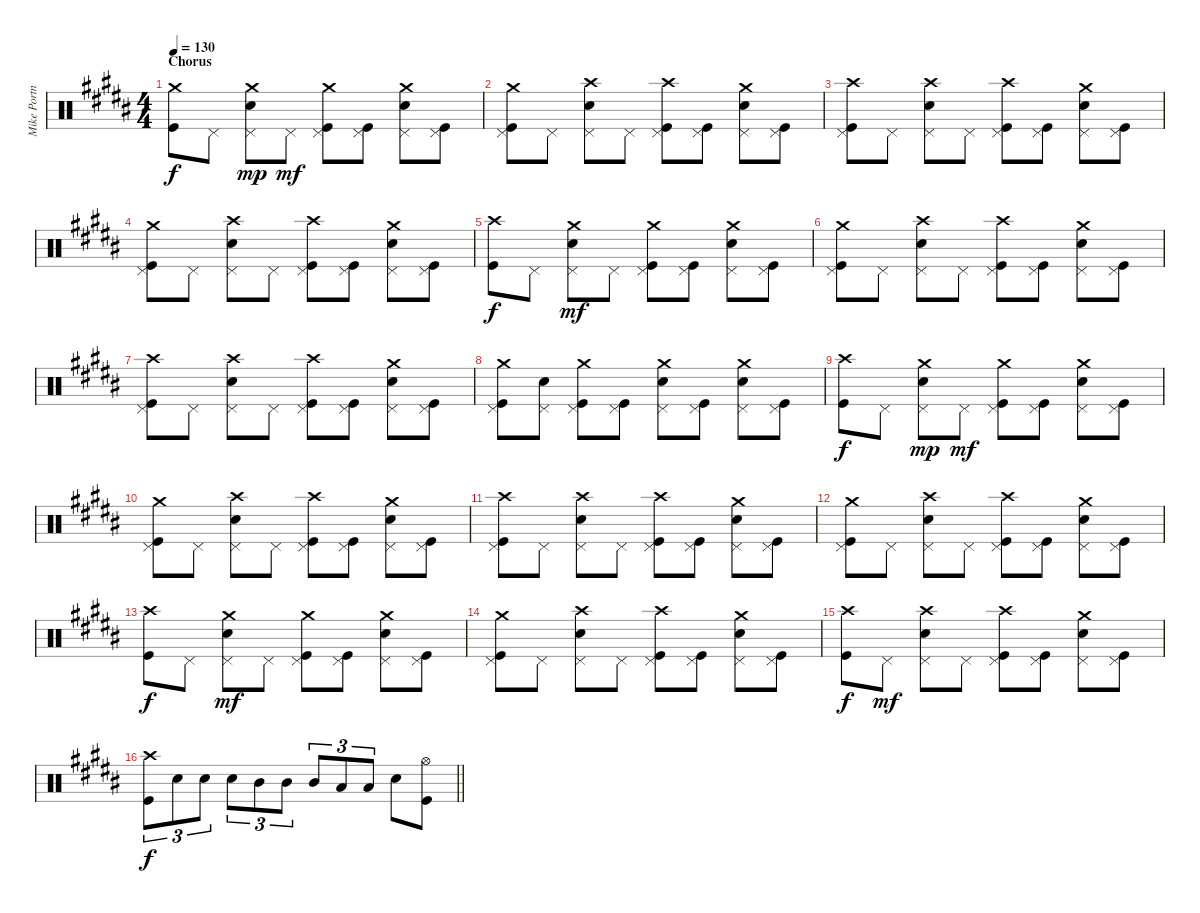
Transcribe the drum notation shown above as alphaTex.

\track ("Mike Portnoy" "Mike Portn") {instrument percussion}
\staff {score}
\articulation defaults
\ts (4 4)
\section ("" "Chorus")
\tempo 130
\clef neutral
\ks g#minor
("Crash medium (hit)" "Kick (hit)").8{dy f} "Pedal Hi-Hat (hit)".8 ("Crash medium (hit)" "Pedal Hi-Hat (hit)" "Electric Snare (hit)").8{dy mp} "Pedal Hi-Hat (hit)".8{dy mf} ("Crash medium (hit)" "Pedal Hi-Hat (hit)" "Kick (hit)").8 ("Pedal Hi-Hat (hit)" "Kick (hit)").8 ("Crash medium (hit)" "Pedal Hi-Hat (hit)" "Electric Snare (hit)").8 ("Pedal Hi-Hat (hit)" "Kick (hit)").8 |
("Crash medium (hit)" "Pedal Hi-Hat (hit)" "Kick (hit)").8 "Pedal Hi-Hat (hit)".8 ("Crash high (hit)" "Pedal Hi-Hat (hit)" "Electric Snare (hit)").8 "Pedal Hi-Hat (hit)".8 ("Crash high (hit)" "Pedal Hi-Hat (hit)" "Kick (hit)").8 ("Pedal Hi-Hat (hit)" "Kick (hit)").8 ("Crash medium (hit)" "Pedal Hi-Hat (hit)" "Electric Snare (hit)").8 ("Pedal Hi-Hat (hit)" "Kick (hit)").8 |
("Crash high (hit)" "Pedal Hi-Hat (hit)" "Kick (hit)").8 "Pedal Hi-Hat (hit)".8 ("Crash high (hit)" "Pedal Hi-Hat (hit)" "Electric Snare (hit)").8 "Pedal Hi-Hat (hit)".8 ("Crash high (hit)" "Pedal Hi-Hat (hit)" "Kick (hit)").8 ("Pedal Hi-Hat (hit)" "Kick (hit)").8 ("Crash medium (hit)" "Pedal Hi-Hat (hit)" "Electric Snare (hit)").8 ("Pedal Hi-Hat (hit)" "Kick (hit)").8 |
("Crash medium (hit)" "Pedal Hi-Hat (hit)" "Kick (hit)").8 "Pedal Hi-Hat (hit)".8 ("Crash high (hit)" "Pedal Hi-Hat (hit)" "Electric Snare (hit)").8 "Pedal Hi-Hat (hit)".8 ("Crash high (hit)" "Pedal Hi-Hat (hit)" "Kick (hit)").8 ("Pedal Hi-Hat (hit)" "Kick (hit)").8 ("Crash medium (hit)" "Pedal Hi-Hat (hit)" "Electric Snare (hit)").8 ("Pedal Hi-Hat (hit)" "Kick (hit)").8 |
("Crash high (hit)" "Kick (hit)").8{dy f} "Pedal Hi-Hat (hit)".8 ("Crash medium (hit)" "Pedal Hi-Hat (hit)" "Electric Snare (hit)").8{dy mf} "Pedal Hi-Hat (hit)".8 ("Crash medium (hit)" "Pedal Hi-Hat (hit)" "Kick (hit)").8 ("Pedal Hi-Hat (hit)" "Kick (hit)").8 ("Crash medium (hit)" "Pedal Hi-Hat (hit)" "Electric Snare (hit)").8 ("Pedal Hi-Hat (hit)" "Kick (hit)").8 |
("Crash medium (hit)" "Pedal Hi-Hat (hit)" "Kick (hit)").8 "Pedal Hi-Hat (hit)".8 ("Crash high (hit)" "Pedal Hi-Hat (hit)" "Electric Snare (hit)").8 "Pedal Hi-Hat (hit)".8 ("Crash high (hit)" "Pedal Hi-Hat (hit)" "Kick (hit)").8 ("Pedal Hi-Hat (hit)" "Kick (hit)").8 ("Crash medium (hit)" "Pedal Hi-Hat (hit)" "Electric Snare (hit)").8 ("Pedal Hi-Hat (hit)" "Kick (hit)").8 |
("Crash high (hit)" "Pedal Hi-Hat (hit)" "Kick (hit)").8 "Pedal Hi-Hat (hit)".8 ("Crash high (hit)" "Pedal Hi-Hat (hit)" "Electric Snare (hit)").8 "Pedal Hi-Hat (hit)".8 ("Crash high (hit)" "Pedal Hi-Hat (hit)" "Kick (hit)").8 ("Pedal Hi-Hat (hit)" "Kick (hit)").8 ("Crash medium (hit)" "Pedal Hi-Hat (hit)" "Electric Snare (hit)").8 ("Pedal Hi-Hat (hit)" "Kick (hit)").8 |
("Crash medium (hit)" "Pedal Hi-Hat (hit)" "Kick (hit)").8 ("Pedal Hi-Hat (hit)" "Electric Snare (hit)").8 ("Crash medium (hit)" "Pedal Hi-Hat (hit)" "Kick (hit)").8 ("Pedal Hi-Hat (hit)" "Kick (hit)").8 ("Crash medium (hit)" "Pedal Hi-Hat (hit)" "Electric Snare (hit)").8 ("Pedal Hi-Hat (hit)" "Kick (hit)").8 ("Crash medium (hit)" "Pedal Hi-Hat (hit)" "Electric Snare (hit)").8 ("Pedal Hi-Hat (hit)" "Kick (hit)").8 |
("Crash high (hit)" "Kick (hit)").8{dy f} "Pedal Hi-Hat (hit)".8 ("Crash medium (hit)" "Pedal Hi-Hat (hit)" "Electric Snare (hit)").8{dy mp} "Pedal Hi-Hat (hit)".8{dy mf} ("Crash medium (hit)" "Pedal Hi-Hat (hit)" "Kick (hit)").8 ("Pedal Hi-Hat (hit)" "Kick (hit)").8 ("Crash medium (hit)" "Pedal Hi-Hat (hit)" "Electric Snare (hit)").8 ("Pedal Hi-Hat (hit)" "Kick (hit)").8 |
("Crash medium (hit)" "Pedal Hi-Hat (hit)" "Kick (hit)").8 "Pedal Hi-Hat (hit)".8 ("Crash high (hit)" "Pedal Hi-Hat (hit)" "Electric Snare (hit)").8 "Pedal Hi-Hat (hit)".8 ("Crash high (hit)" "Pedal Hi-Hat (hit)" "Kick (hit)").8 ("Pedal Hi-Hat (hit)" "Kick (hit)").8 ("Crash medium (hit)" "Pedal Hi-Hat (hit)" "Electric Snare (hit)").8 ("Pedal Hi-Hat (hit)" "Kick (hit)").8 |
("Crash high (hit)" "Pedal Hi-Hat (hit)" "Kick (hit)").8 "Pedal Hi-Hat (hit)".8 ("Crash high (hit)" "Pedal Hi-Hat (hit)" "Electric Snare (hit)").8 "Pedal Hi-Hat (hit)".8 ("Crash high (hit)" "Pedal Hi-Hat (hit)" "Kick (hit)").8 ("Pedal Hi-Hat (hit)" "Kick (hit)").8 ("Crash medium (hit)" "Pedal Hi-Hat (hit)" "Electric Snare (hit)").8 ("Pedal Hi-Hat (hit)" "Kick (hit)").8 |
("Crash medium (hit)" "Pedal Hi-Hat (hit)" "Kick (hit)").8 "Pedal Hi-Hat (hit)".8 ("Crash high (hit)" "Pedal Hi-Hat (hit)" "Electric Snare (hit)").8 "Pedal Hi-Hat (hit)".8 ("Crash high (hit)" "Pedal Hi-Hat (hit)" "Kick (hit)").8 ("Pedal Hi-Hat (hit)" "Kick (hit)").8 ("Crash medium (hit)" "Pedal Hi-Hat (hit)" "Electric Snare (hit)").8 ("Pedal Hi-Hat (hit)" "Kick (hit)").8 |
("Crash high (hit)" "Kick (hit)").8{dy f} "Pedal Hi-Hat (hit)".8 ("Crash medium (hit)" "Pedal Hi-Hat (hit)" "Electric Snare (hit)").8{dy mf} "Pedal Hi-Hat (hit)".8 ("Crash medium (hit)" "Pedal Hi-Hat (hit)" "Kick (hit)").8 ("Pedal Hi-Hat (hit)" "Kick (hit)").8 ("Crash medium (hit)" "Pedal Hi-Hat (hit)" "Electric Snare (hit)").8 ("Pedal Hi-Hat (hit)" "Kick (hit)").8 |
("Crash medium (hit)" "Pedal Hi-Hat (hit)" "Kick (hit)").8 "Pedal Hi-Hat (hit)".8 ("Crash high (hit)" "Pedal Hi-Hat (hit)" "Electric Snare (hit)").8 "Pedal Hi-Hat (hit)".8 ("Crash high (hit)" "Pedal Hi-Hat (hit)" "Kick (hit)").8 ("Pedal Hi-Hat (hit)" "Kick (hit)").8 ("Crash medium (hit)" "Pedal Hi-Hat (hit)" "Electric Snare (hit)").8 ("Pedal Hi-Hat (hit)" "Kick (hit)").8 |
("Crash high (hit)" "Kick (hit)").8{dy f} "Pedal Hi-Hat (hit)".8{dy mf} ("Crash high (hit)" "Pedal Hi-Hat (hit)" "Electric Snare (hit)").8 "Pedal Hi-Hat (hit)".8 ("Crash high (hit)" "Pedal Hi-Hat (hit)" "Kick (hit)").8 ("Pedal Hi-Hat (hit)" "Kick (hit)").8 ("Crash medium (hit)" "Pedal Hi-Hat (hit)" "Electric Snare (hit)").8 ("Pedal Hi-Hat (hit)" "Kick (hit)").8 |
\barLineRight lightlight
("Crash high (hit)" "Kick (hit)").8{tu (3 2) dy f} "Electric Snare (hit)".8{tu (3 2)} "Electric Snare (hit)".8{tu (3 2)} "Electric Snare (hit)".8{tu (3 2)} "Mid Tom (hit)".8{tu (3 2)} "Mid Tom (hit)".8{tu (3 2)} "Mid Tom (hit)".8{tu (3 2)} "Low Tom (hit)".8{tu (3 2)} "Low Tom (hit)".8{tu (3 2)} "Electric Snare (hit)".8 ("Hi-Hat (open)" "Kick (hit)").8
